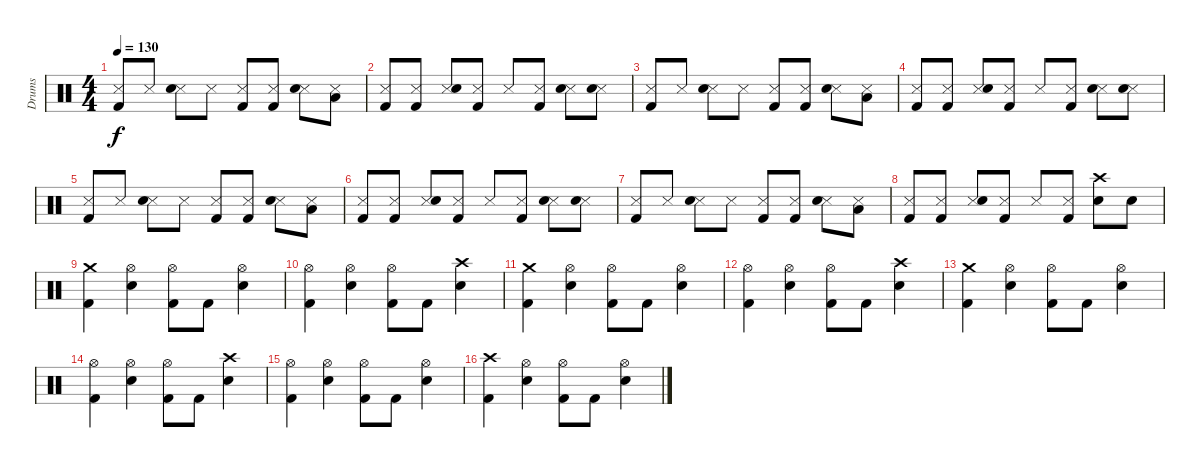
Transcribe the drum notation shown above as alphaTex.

\track ("Drums" "Drums") {instrument percussion}
\staff {score}
\articulation defaults
\ts (4 4)
\tempo 130
\clef neutral
\ks c
("Snare (side stick) 3" "Kick (hit) 2").8{dy f} "Snare (side stick) 3".8 ("Snare (side stick) 3" "Snare (hit) 2").8 "Snare (side stick) 3".8 ("Snare (side stick) 3" "Kick (hit) 2").8 ("Snare (side stick) 3" "Kick (hit) 2").8 ("Snare (side stick) 3" "Snare (hit) 2").8 ("Snare (side stick) 3" "Low Tom (hit)").8 |
("Snare (side stick) 3" "Kick (hit) 2").8 ("Snare (side stick) 3" "Kick (hit) 2").8 ("Snare (side stick) 3" "Snare (hit) 2").8 ("Snare (side stick) 3" "Kick (hit) 2").8 "Snare (side stick) 3".8 ("Snare (side stick) 3" "Kick (hit) 2").8 ("Snare (side stick) 3" "Snare (hit) 2").8 ("Snare (side stick) 3" "Snare (hit) 2").8 |
("Snare (side stick) 3" "Kick (hit) 2").8 "Snare (side stick) 3".8 ("Snare (side stick) 3" "Snare (hit) 2").8 "Snare (side stick) 3".8 ("Snare (side stick) 3" "Kick (hit) 2").8 ("Snare (side stick) 3" "Kick (hit) 2").8 ("Snare (side stick) 3" "Snare (hit) 2").8 ("Snare (side stick) 3" "Low Tom (hit)").8 |
("Snare (side stick) 3" "Kick (hit) 2").8 ("Snare (side stick) 3" "Kick (hit) 2").8 ("Snare (side stick) 3" "Snare (hit) 2").8 ("Snare (side stick) 3" "Kick (hit) 2").8 "Snare (side stick) 3".8 ("Snare (side stick) 3" "Kick (hit) 2").8 ("Snare (side stick) 3" "Snare (hit) 2").8 ("Snare (side stick) 3" "Snare (hit) 2").8 |
("Snare (side stick) 3" "Kick (hit) 2").8 "Snare (side stick) 3".8 ("Snare (side stick) 3" "Snare (hit) 2").8 "Snare (side stick) 3".8 ("Snare (side stick) 3" "Kick (hit) 2").8 ("Snare (side stick) 3" "Kick (hit) 2").8 ("Snare (side stick) 3" "Snare (hit) 2").8 ("Snare (side stick) 3" "Low Tom (hit)").8 |
("Snare (side stick) 3" "Kick (hit) 2").8 ("Snare (side stick) 3" "Kick (hit) 2").8 ("Snare (side stick) 3" "Snare (hit) 2").8 ("Snare (side stick) 3" "Kick (hit) 2").8 "Snare (side stick) 3".8 ("Snare (side stick) 3" "Kick (hit) 2").8 ("Snare (side stick) 3" "Snare (hit) 2").8 ("Snare (side stick) 3" "Snare (hit) 2").8 |
("Snare (side stick) 3" "Kick (hit) 2").8 "Snare (side stick) 3".8 ("Snare (side stick) 3" "Snare (hit) 2").8 "Snare (side stick) 3".8 ("Snare (side stick) 3" "Kick (hit) 2").8 ("Snare (side stick) 3" "Kick (hit) 2").8 ("Snare (side stick) 3" "Snare (hit) 2").8 ("Snare (side stick) 3" "Low Tom (hit)").8 |
("Snare (side stick) 3" "Kick (hit) 2").8 ("Snare (side stick) 3" "Kick (hit) 2").8 ("Snare (side stick) 3" "Snare (hit) 2").8 ("Snare (side stick) 3" "Kick (hit) 2").8 "Snare (side stick) 3".8 ("Snare (side stick) 3" "Kick (hit) 2").8 ("Crash high (hit)" "Snare (hit) 2").8 "Snare (hit) 2".8 |
("Crash medium (hit)" "Kick (hit) 2").4 ("Hi-Hat (open)" "Snare (hit) 2").4 ("Hi-Hat (open)" "Kick (hit) 2").8 "Kick (hit) 2".8 ("Hi-Hat (open)" "Snare (hit) 2").4 |
("Hi-Hat (open)" "Kick (hit) 2").4 ("Hi-Hat (open)" "Snare (hit) 2").4 ("Hi-Hat (open)" "Kick (hit) 2").8 "Kick (hit) 2".8 ("Crash high (hit)" "Snare (hit) 2").4 |
("Crash medium (hit)" "Kick (hit) 2").4 ("Hi-Hat (open)" "Snare (hit) 2").4 ("Hi-Hat (open)" "Kick (hit) 2").8 "Kick (hit) 2".8 ("Hi-Hat (open)" "Snare (hit) 2").4 |
("Hi-Hat (open)" "Kick (hit) 2").4 ("Hi-Hat (open)" "Snare (hit) 2").4 ("Hi-Hat (open)" "Kick (hit) 2").8 "Kick (hit) 2".8 ("Crash high (hit)" "Snare (hit) 2").4 |
("Crash medium (hit)" "Kick (hit) 2").4 ("Hi-Hat (open)" "Snare (hit) 2").4 ("Hi-Hat (open)" "Kick (hit) 2").8 "Kick (hit) 2".8 ("Hi-Hat (open)" "Snare (hit) 2").4 |
("Hi-Hat (open)" "Kick (hit) 2").4 ("Hi-Hat (open)" "Snare (hit) 2").4 ("Hi-Hat (open)" "Kick (hit) 2").8 "Kick (hit) 2".8 ("Crash high (hit)" "Snare (hit) 2").4 |
("Hi-Hat (open)" "Kick (hit) 2").4 ("Hi-Hat (open)" "Snare (hit) 2").4 ("Hi-Hat (open)" "Kick (hit) 2").8 "Kick (hit) 2".8 ("Hi-Hat (open)" "Snare (hit) 2").4 |
("Crash high (hit)" "Kick (hit) 2").4 ("Hi-Hat (open)" "Snare (hit) 2").4 ("Hi-Hat (open)" "Kick (hit) 2").8 "Kick (hit) 2".8 ("Hi-Hat (open)" "Snare (hit) 2").4
